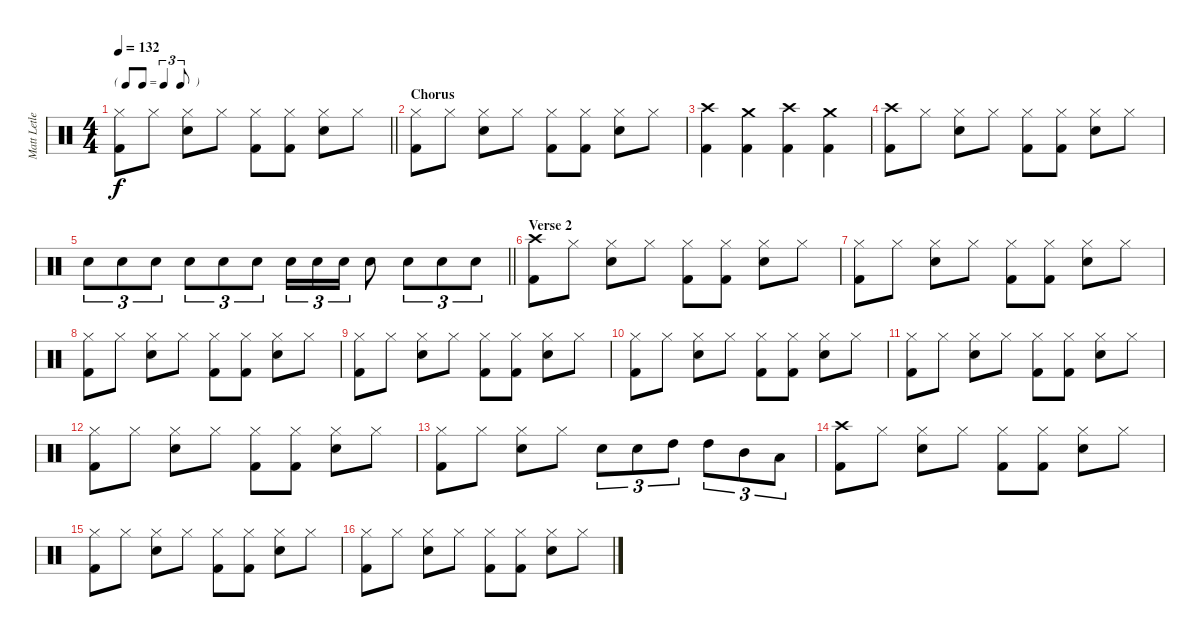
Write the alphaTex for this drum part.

\track ("Matt Letley" "Matt Letle") {instrument percussion}
\staff {score}
\articulation defaults
\ts (4 4)
\tf triplet8th
\tempo 132
\clef neutral
\barLineRight lightlight
\ks c
("Hi-Hat (closed)" "Kick (hit) 2").8{dy f} "Hi-Hat (closed)".8 ("Hi-Hat (closed)" "Electric Snare (hit)").8 "Hi-Hat (closed)".8 ("Hi-Hat (closed)" "Kick (hit) 2").8 ("Hi-Hat (closed)" "Kick (hit) 2").8 ("Hi-Hat (closed)" "Electric Snare (hit)").8 "Hi-Hat (closed)".8 |
\section ("" "Chorus")
("Hi-Hat (closed)" "Kick (hit) 2").8 "Hi-Hat (closed)".8 ("Hi-Hat (closed)" "Electric Snare (hit)").8 "Hi-Hat (closed)".8 ("Hi-Hat (closed)" "Kick (hit) 2").8 ("Hi-Hat (closed)" "Kick (hit) 2").8 ("Hi-Hat (closed)" "Electric Snare (hit)").8 "Hi-Hat (closed)".8 |
("Crash high (hit)" "Kick (hit) 2").4 ("Crash medium (hit)" "Kick (hit) 2").4 ("Crash high (hit)" "Kick (hit) 2").4 ("Crash medium (hit)" "Kick (hit) 2").4 |
("Crash high (hit)" "Kick (hit) 2").8 "Hi-Hat (closed)".8 ("Hi-Hat (closed)" "Electric Snare (hit)").8 "Hi-Hat (closed)".8 ("Hi-Hat (closed)" "Kick (hit) 2").8 ("Hi-Hat (closed)" "Kick (hit) 2").8 ("Hi-Hat (closed)" "Electric Snare (hit)").8 "Hi-Hat (closed)".8 |
\barLineRight lightlight "Electric Snare (hit)".8{tu (3 2)} "Electric Snare (hit)".8{tu (3 2)} "Electric Snare (hit)".8{tu (3 2)} "Electric Snare (hit)".8{tu (3 2)} "Electric Snare (hit)".8{tu (3 2)} "Electric Snare (hit)".8{tu (3 2)} "Electric Snare (hit)".16{tu (3 2)} "Electric Snare (hit)".16{tu (3 2)} "Electric Snare (hit)".16{tu (3 2)} "Electric Snare (hit)".8 "Electric Snare (hit)".8{tu (3 2)} "Electric Snare (hit)".8{tu (3 2)} "Electric Snare (hit)".8{tu (3 2)}
|
\section ("" "Verse 2")
("Crash high (hit)" "Kick (hit) 2").8 "Hi-Hat (closed)".8 ("Hi-Hat (closed)" "Electric Snare (hit)").8 "Hi-Hat (closed)".8 ("Hi-Hat (closed)" "Kick (hit) 2").8 ("Hi-Hat (closed)" "Kick (hit) 2").8 ("Hi-Hat (closed)" "Electric Snare (hit)").8 "Hi-Hat (closed)".8 |
("Hi-Hat (closed)" "Kick (hit) 2").8 "Hi-Hat (closed)".8 ("Hi-Hat (closed)" "Electric Snare (hit)").8 "Hi-Hat (closed)".8 ("Hi-Hat (closed)" "Kick (hit) 2").8 ("Hi-Hat (closed)" "Kick (hit) 2").8 ("Hi-Hat (closed)" "Electric Snare (hit)").8 "Hi-Hat (closed)".8 |
("Hi-Hat (closed)" "Kick (hit) 2").8 "Hi-Hat (closed)".8 ("Hi-Hat (closed)" "Electric Snare (hit)").8 "Hi-Hat (closed)".8 ("Hi-Hat (closed)" "Kick (hit) 2").8 ("Hi-Hat (closed)" "Kick (hit) 2").8 ("Hi-Hat (closed)" "Electric Snare (hit)").8 "Hi-Hat (closed)".8 |
("Hi-Hat (closed)" "Kick (hit) 2").8 "Hi-Hat (closed)".8 ("Hi-Hat (closed)" "Electric Snare (hit)").8 "Hi-Hat (closed)".8 ("Hi-Hat (closed)" "Kick (hit) 2").8 ("Hi-Hat (closed)" "Kick (hit) 2").8 ("Hi-Hat (closed)" "Electric Snare (hit)").8 "Hi-Hat (closed)".8 |
("Hi-Hat (closed)" "Kick (hit) 2").8 "Hi-Hat (closed)".8 ("Hi-Hat (closed)" "Electric Snare (hit)").8 "Hi-Hat (closed)".8 ("Hi-Hat (closed)" "Kick (hit) 2").8 ("Hi-Hat (closed)" "Kick (hit) 2").8 ("Hi-Hat (closed)" "Electric Snare (hit)").8 "Hi-Hat (closed)".8 |
("Hi-Hat (closed)" "Kick (hit) 2").8 "Hi-Hat (closed)".8 ("Hi-Hat (closed)" "Electric Snare (hit)").8 "Hi-Hat (closed)".8 ("Hi-Hat (closed)" "Kick (hit) 2").8 ("Hi-Hat (closed)" "Kick (hit) 2").8 ("Hi-Hat (closed)" "Electric Snare (hit)").8 "Hi-Hat (closed)".8 |
("Hi-Hat (closed)" "Kick (hit) 2").8 "Hi-Hat (closed)".8 ("Hi-Hat (closed)" "Electric Snare (hit)").8 "Hi-Hat (closed)".8 ("Hi-Hat (closed)" "Kick (hit) 2").8 ("Hi-Hat (closed)" "Kick (hit) 2").8 ("Hi-Hat (closed)" "Electric Snare (hit)").8 "Hi-Hat (closed)".8 |
("Hi-Hat (closed)" "Kick (hit) 2").8 "Hi-Hat (closed)".8 ("Hi-Hat (closed)" "Electric Snare (hit)").8 "Hi-Hat (closed)".8 "Electric Snare (hit)".8{tu (3 2)} "Electric Snare (hit)".8{tu (3 2)} "High Tom (hit)".8{tu (3 2)} "High Tom (hit)".8{tu (3 2)} "Mid Tom (hit)".8{tu (3 2)} "Low Tom (hit)".8{tu (3 2)} |
("Crash high (hit)" "Kick (hit) 2").8 "Hi-Hat (closed)".8 ("Hi-Hat (closed)" "Electric Snare (hit)").8 "Hi-Hat (closed)".8 ("Hi-Hat (closed)" "Kick (hit) 2").8 ("Hi-Hat (closed)" "Kick (hit) 2").8 ("Hi-Hat (closed)" "Electric Snare (hit)").8 "Hi-Hat (closed)".8 |
("Hi-Hat (closed)" "Kick (hit) 2").8 "Hi-Hat (closed)".8 ("Hi-Hat (closed)" "Electric Snare (hit)").8 "Hi-Hat (closed)".8 ("Hi-Hat (closed)" "Kick (hit) 2").8 ("Hi-Hat (closed)" "Kick (hit) 2").8 ("Hi-Hat (closed)" "Electric Snare (hit)").8 "Hi-Hat (closed)".8 |
("Hi-Hat (closed)" "Kick (hit) 2").8 "Hi-Hat (closed)".8 ("Hi-Hat (closed)" "Electric Snare (hit)").8 "Hi-Hat (closed)".8 ("Hi-Hat (closed)" "Kick (hit) 2").8 ("Hi-Hat (closed)" "Kick (hit) 2").8 ("Hi-Hat (closed)" "Electric Snare (hit)").8 "Hi-Hat (closed)".8
